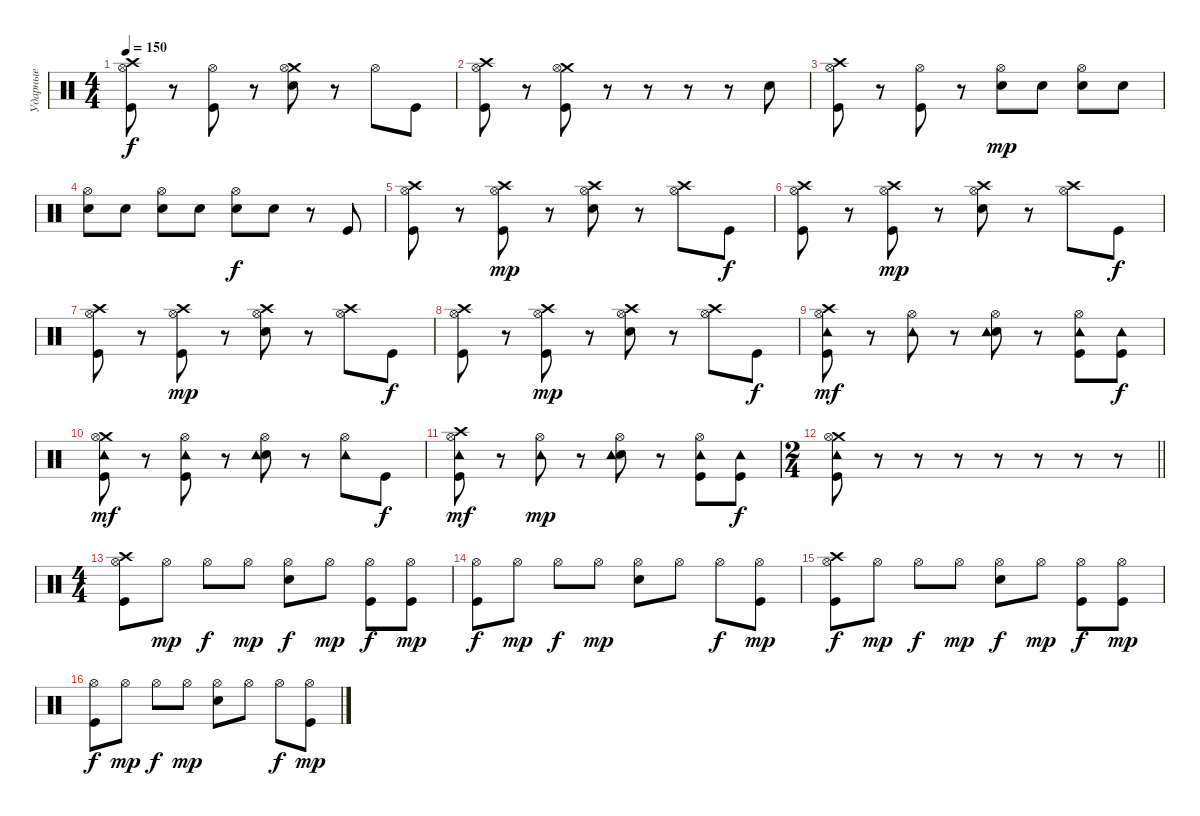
\track ("Ударные" "Ударные") {instrument percussion}
\staff {score}
\articulation defaults
\ts (4 4)
\tempo 150
\clef neutral
\ks c
("Crash high (hit)" "Hi-Hat (open)" "Kick (hit)").8{dy f} r.8 ("Kick (hit)" "Hi-Hat (open)").8 r.8 ("Crash medium (hit)" "Electric Snare (hit)" "Hi-Hat (open)").8 r.8 "Hi-Hat (open)".8 "Kick (hit)".8 |
("Crash high (hit)" "Hi-Hat (open)" "Kick (hit)").8 r.8 ("Crash medium (hit)" "Kick (hit)" "Hi-Hat (open)").8 r.8 r.8 r.8 r.8 "Electric Snare (hit)".8 |
("Crash high (hit)" "Hi-Hat (open)" "Kick (hit)").8 r.8 ("Kick (hit)" "Hi-Hat (open)").8 r.8 ("Electric Snare (hit)" "Hi-Hat (open)").8{dy mp} "Electric Snare (hit)".8 ("Electric Snare (hit)" "Hi-Hat (open)").8 "Electric Snare (hit)".8 |
("Electric Snare (hit)" "Hi-Hat (open)").8 "Electric Snare (hit)".8 ("Electric Snare (hit)" "Hi-Hat (open)").8 "Electric Snare (hit)".8 ("Electric Snare (hit)" "Hi-Hat (open)").8{dy f} "Electric Snare (hit)".8 r.8 "Kick (hit)".8 |
("Crash high (hit)" "Hi-Hat (open)" "Kick (hit)").8 r.8 ("Crash high (hit)" "Kick (hit)" "Hi-Hat (open)").8{dy mp} r.8 ("Crash high (hit)" "Electric Snare (hit)" "Hi-Hat (open)").8 r.8 ("Crash high (hit)" "Hi-Hat (open)").8 "Kick (hit)".8{dy f} |
("Crash high (hit)" "Hi-Hat (open)" "Kick (hit)").8 r.8 ("Crash high (hit)" "Kick (hit)" "Hi-Hat (open)").8{dy mp} r.8 ("Crash high (hit)" "Electric Snare (hit)" "Hi-Hat (open)").8 r.8 ("Crash high (hit)" "Hi-Hat (open)").8 "Kick (hit)".8{dy f} |
("Crash high (hit)" "Hi-Hat (open)" "Kick (hit)").8 r.8 ("Crash high (hit)" "Kick (hit)" "Hi-Hat (open)").8{dy mp} r.8 ("Crash high (hit)" "Electric Snare (hit)" "Hi-Hat (open)").8 r.8 ("Crash high (hit)" "Hi-Hat (open)").8 "Kick (hit)".8{dy f} |
("Crash high (hit)" "Hi-Hat (open)" "Kick (hit)").8 r.8 ("Crash high (hit)" "Kick (hit)" "Hi-Hat (open)").8{dy mp} r.8 ("Crash high (hit)" "Electric Snare (hit)" "Hi-Hat (open)").8 r.8 ("Crash high (hit)" "Hi-Hat (open)").8 "Kick (hit)".8{dy f} |
("Crash high (hit)" "Kick (hit)" "Hi-Hat (open)" "Tambourine (hit)").8{dy mf} r.8 ("Hi-Hat (open)" "Tambourine (hit)").8 r.8 ("Electric Snare (hit)" "Hi-Hat (open)" "Tambourine (hit)").8 r.8 ("Kick (hit)" "Hi-Hat (open)" "Tambourine (hit)").8 ("Kick (hit)" "Tambourine (hit)").8{dy f} |
("Crash medium (hit)" "Kick (hit)" "Hi-Hat (open)" "Tambourine (hit)").8{dy mf} r.8 ("Kick (hit)" "Hi-Hat (open)" "Tambourine (hit)").8 r.8 ("Electric Snare (hit)" "Hi-Hat (open)" "Tambourine (hit)").8 r.8 ("Hi-Hat (open)" "Tambourine (hit)").8 "Kick (hit)".8{dy f} |
("Crash high (hit)" "Kick (hit)" "Hi-Hat (open)" "Tambourine (hit)").8{dy mf} r.8 ("Hi-Hat (open)" "Tambourine (hit)").8{dy mp} r.8 ("Electric Snare (hit)" "Hi-Hat (open)" "Tambourine (hit)").8 r.8 ("Kick (hit)" "Hi-Hat (open)" "Tambourine (hit)").8 ("Kick (hit)" "Tambourine (hit)").8{dy f} |
\ts (2 4)
\barLineRight lightlight
("Crash medium (hit)" "Kick (hit)" "Hi-Hat (open)" "Tambourine (hit)").8 r.8 r.8 r.8 r.8 r.8 r.8 r.8 |
\ts (4 4)
\section ("" "")
("Crash high (hit)" "Hi-Hat (open)" "Kick (hit)").8 "Hi-Hat (open)".8{dy mp} "Hi-Hat (open)".8{dy f} "Hi-Hat (open)".8{dy mp} ("Snare (hit) 2" "Hi-Hat (open)").8{dy f} "Hi-Hat (open)".8{dy mp} ("Hi-Hat (open)" "Kick (hit)").8{dy f} ("Hi-Hat (open)" "Kick (hit)").8{dy mp} |
("Hi-Hat (open)" "Kick (hit)").8{dy f} "Hi-Hat (open)".8{dy mp} "Hi-Hat (open)".8{dy f} "Hi-Hat (open)".8{dy mp} ("Snare (hit) 2" "Hi-Hat (open)").8 "Hi-Hat (open)".8 "Hi-Hat (open)".8{dy f} ("Hi-Hat (open)" "Kick (hit)").8{dy mp} |
("Crash high (hit)" "Hi-Hat (open)" "Kick (hit)").8{dy f} "Hi-Hat (open)".8{dy mp} "Hi-Hat (open)".8{dy f} "Hi-Hat (open)".8{dy mp} ("Snare (hit) 2" "Hi-Hat (open)").8{dy f} "Hi-Hat (open)".8{dy mp} ("Hi-Hat (open)" "Kick (hit)").8{dy f} ("Hi-Hat (open)" "Kick (hit)").8{dy mp} |
("Hi-Hat (open)" "Kick (hit)").8{dy f} "Hi-Hat (open)".8{dy mp} "Hi-Hat (open)".8{dy f} "Hi-Hat (open)".8{dy mp} ("Snare (hit) 2" "Hi-Hat (open)").8 "Hi-Hat (open)".8 "Hi-Hat (open)".8{dy f} ("Hi-Hat (open)" "Kick (hit)").8{dy mp}
